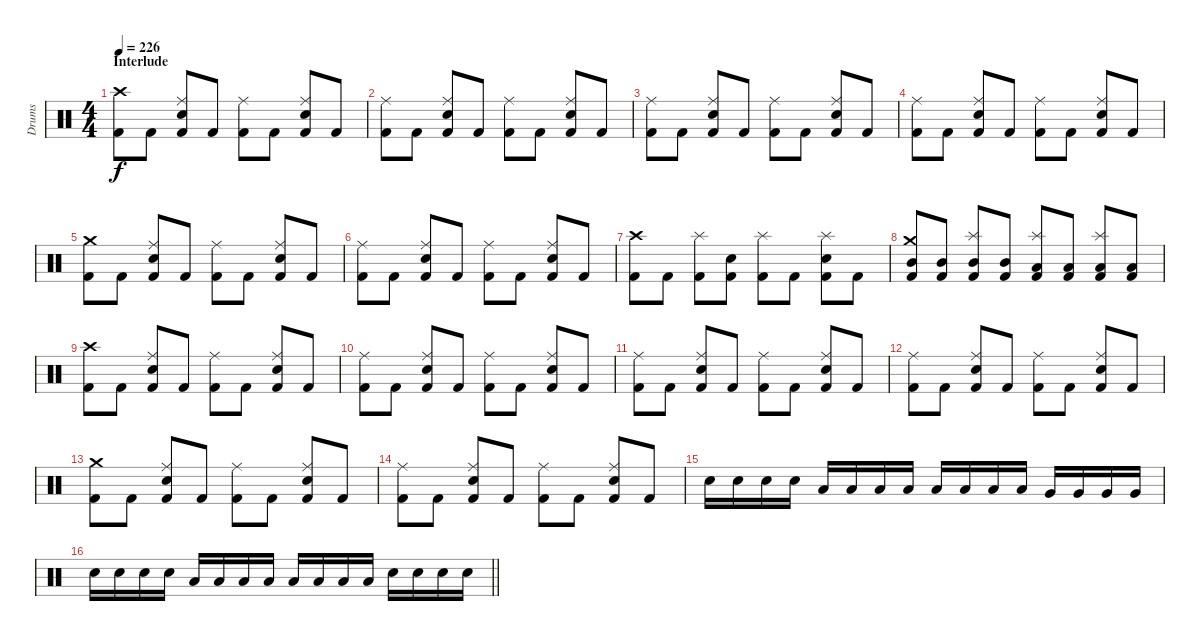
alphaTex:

\track ("Drums" "Drums") {instrument percussion}
\staff {score}
\articulation defaults
\ts (4 4)
\section ("" "Interlude")
\tempo 226
\clef neutral
\ks c
("Crash high (hit)" "Kick (hit) 2").8{dy f} "Kick (hit) 2".8 ("Ride (middle)" "Snare (hit) 2" "Kick (hit) 2").8 "Kick (hit) 2".8 ("Ride (middle)" "Kick (hit) 2").8 "Kick (hit) 2".8 ("Ride (middle)" "Snare (hit) 2" "Kick (hit) 2").8 "Kick (hit) 2".8 |
("Ride (middle)" "Kick (hit) 2").8 "Kick (hit) 2".8 ("Ride (middle)" "Snare (hit) 2" "Kick (hit) 2").8 "Kick (hit) 2".8 ("Ride (middle)" "Kick (hit) 2").8 "Kick (hit) 2".8 ("Ride (middle)" "Snare (hit) 2" "Kick (hit) 2").8 "Kick (hit) 2".8 |
("Ride (middle)" "Kick (hit) 2").8 "Kick (hit) 2".8 ("Ride (middle)" "Snare (hit) 2" "Kick (hit) 2").8 "Kick (hit) 2".8 ("Ride (middle)" "Kick (hit) 2").8 "Kick (hit) 2".8 ("Ride (middle)" "Snare (hit) 2" "Kick (hit) 2").8 "Kick (hit) 2".8 |
("Ride (middle)" "Kick (hit) 2").8 "Kick (hit) 2".8 ("Ride (middle)" "Snare (hit) 2" "Kick (hit) 2").8 "Kick (hit) 2".8 ("Ride (middle)" "Kick (hit) 2").8 "Kick (hit) 2".8 ("Ride (middle)" "Snare (hit) 2" "Kick (hit) 2").8 "Kick (hit) 2".8 |
("Crash medium (hit)" "Kick (hit) 2").8 "Kick (hit) 2".8 ("Ride (middle)" "Snare (hit) 2" "Kick (hit) 2").8 "Kick (hit) 2".8 ("Ride (middle)" "Kick (hit) 2").8 "Kick (hit) 2".8 ("Ride (middle)" "Snare (hit) 2" "Kick (hit) 2").8 "Kick (hit) 2".8 |
("Ride (middle)" "Kick (hit) 2").8 "Kick (hit) 2".8 ("Ride (middle)" "Snare (hit) 2" "Kick (hit) 2").8 "Kick (hit) 2".8 ("Ride (middle)" "Kick (hit) 2").8 "Kick (hit) 2".8 ("Ride (middle)" "Snare (hit) 2" "Kick (hit) 2").8 "Kick (hit) 2".8 |
("Crash high (hit)" "Kick (hit) 2").8 "Kick (hit) 2".8 ("Splash (hit)" "Kick (hit) 2").8 ("Snare (hit) 2" "Kick (hit) 2").8 ("Splash (hit)" "Kick (hit) 2").8 "Kick (hit) 2".8 ("Splash (hit)" "Snare (hit) 2" "Kick (hit) 2").8 "Kick (hit) 2".8 |
("Crash medium (hit)" "Mid Tom (hit)" "Kick (hit) 2").8 ("Mid Tom (hit)" "Kick (hit) 2").8 ("Splash (hit)" "Mid Tom (hit)" "Kick (hit) 2").8 ("Mid Tom (hit)" "Kick (hit) 2").8 ("Splash (hit)" "Low Tom (hit)" "Kick (hit) 2").8 ("Low Tom (hit)" "Kick (hit) 2").8 ("Splash (hit)" "Low Tom (hit)" "Kick (hit) 2").8 ("Low Tom (hit)" "Kick (hit) 2").8 |
("Crash high (hit)" "Kick (hit) 2").8 "Kick (hit) 2".8 ("Ride (middle)" "Snare (hit) 2" "Kick (hit) 2").8 "Kick (hit) 2".8 ("Ride (middle)" "Kick (hit) 2").8 "Kick (hit) 2".8 ("Ride (middle)" "Snare (hit) 2" "Kick (hit) 2").8 "Kick (hit) 2".8 |
("Ride (middle)" "Kick (hit) 2").8 "Kick (hit) 2".8 ("Ride (middle)" "Snare (hit) 2" "Kick (hit) 2").8 "Kick (hit) 2".8 ("Ride (middle)" "Kick (hit) 2").8 "Kick (hit) 2".8 ("Ride (middle)" "Snare (hit) 2" "Kick (hit) 2").8 "Kick (hit) 2".8 |
("Ride (middle)" "Kick (hit) 2").8 "Kick (hit) 2".8 ("Ride (middle)" "Snare (hit) 2" "Kick (hit) 2").8 "Kick (hit) 2".8 ("Ride (middle)" "Kick (hit) 2").8 "Kick (hit) 2".8 ("Ride (middle)" "Snare (hit) 2" "Kick (hit) 2").8 "Kick (hit) 2".8 |
("Ride (middle)" "Kick (hit) 2").8 "Kick (hit) 2".8 ("Ride (middle)" "Snare (hit) 2" "Kick (hit) 2").8 "Kick (hit) 2".8 ("Ride (middle)" "Kick (hit) 2").8 "Kick (hit) 2".8 ("Ride (middle)" "Snare (hit) 2" "Kick (hit) 2").8 "Kick (hit) 2".8 |
("Crash medium (hit)" "Kick (hit) 2").8 "Kick (hit) 2".8 ("Ride (middle)" "Snare (hit) 2" "Kick (hit) 2").8 "Kick (hit) 2".8 ("Ride (middle)" "Kick (hit) 2").8 "Kick (hit) 2".8 ("Ride (middle)" "Snare (hit) 2" "Kick (hit) 2").8 "Kick (hit) 2".8 |
("Ride (middle)" "Kick (hit) 2").8 "Kick (hit) 2".8 ("Ride (middle)" "Snare (hit) 2" "Kick (hit) 2").8 "Kick (hit) 2".8 ("Ride (middle)" "Kick (hit) 2").8 "Kick (hit) 2".8 ("Ride (middle)" "Snare (hit) 2" "Kick (hit) 2").8 "Kick (hit) 2".8 |
"Snare (hit) 2".16 "Snare (hit) 2".16 "Snare (hit) 2".16 "Snare (hit) 2".16 "Low Tom (hit)".16 "Low Tom (hit)".16 "Low Tom (hit)".16 "Low Tom (hit)".16 "Low Tom (hit)".16 "Low Tom (hit)".16 "Low Tom (hit)".16 "Low Tom (hit)".16 "Very Low Tom (hit)".16 "Very Low Tom (hit)".16 "Very Low Tom (hit)".16 "Very Low Tom (hit)".16 |
\barLineRight lightlight "Snare (hit) 2".16 "Snare (hit) 2".16 "Snare (hit) 2".16 "Snare (hit) 2".16 "Low Tom (hit)".16 "Low Tom (hit)".16 "Low Tom (hit)".16 "Low Tom (hit)".16 "Low Tom (hit)".16 "Low Tom (hit)".16 "Low Tom (hit)".16 "Low Tom (hit)".16 "Snare (hit) 2".16 "Snare (hit) 2".16 "Snare (hit) 2".16 "Snare (hit) 2".16
